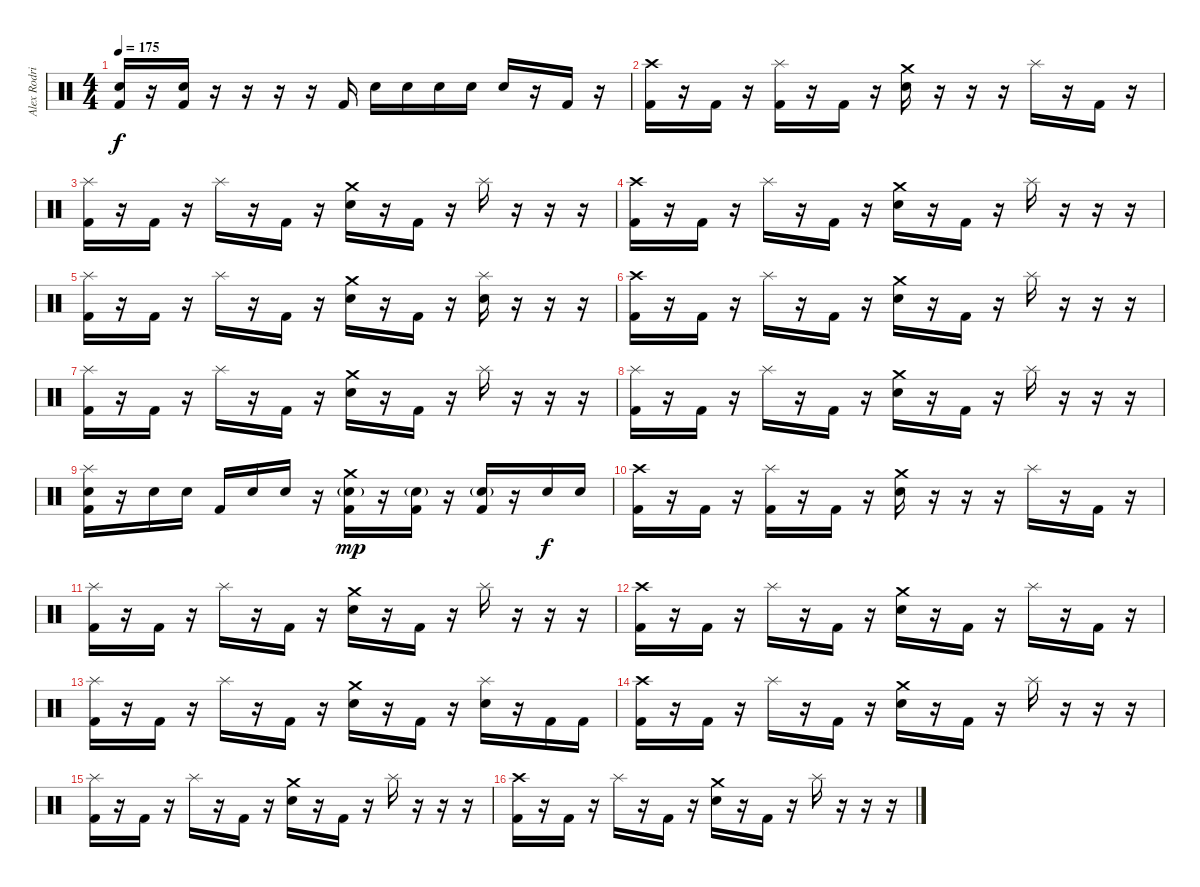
\track ("Alex Rodriguez" "Alex Rodri") {instrument percussion}
\staff {score}
\articulation defaults
\ts (4 4)
\tempo 175
\clef neutral
\ks c
("Electric Snare (hit)" "Kick (hit) 2").16{dy f} r.16 ("Electric Snare (hit)" "Kick (hit) 2").16 r.16 r.16 r.16 r.16 "Kick (hit) 2".16 "Electric Snare (hit)".16 "Electric Snare (hit)".16 "Electric Snare (hit)".16 "Electric Snare (hit)".16 "Electric Snare (hit)".16 r.16 "Kick (hit) 2".16 r.16 |
("Crash high (hit)" "Kick (hit) 2").16 r.16 "Kick (hit) 2".16 r.16 ("Splash (hit)" "Kick (hit) 2").16 r.16 "Kick (hit) 2".16 r.16 ("Crash medium (hit)" "Electric Snare (hit)").16 r.16 r.16 r.16 "Splash (hit)".16 r.16 "Kick (hit) 2".16 r.16 |
("Splash (hit)" "Kick (hit) 2").16 r.16 "Kick (hit) 2".16 r.16 "Splash (hit)".16 r.16 "Kick (hit) 2".16 r.16 ("Crash medium (hit)" "Electric Snare (hit)").16 r.16 "Kick (hit) 2".16 r.16 "Splash (hit)".16 r.16 r.16 r.16 |
("Crash high (hit)" "Kick (hit) 2").16 r.16 "Kick (hit) 2".16 r.16 "Splash (hit)".16 r.16 "Kick (hit) 2".16 r.16 ("Crash medium (hit)" "Electric Snare (hit)").16 r.16 "Kick (hit) 2".16 r.16 "Splash (hit)".16 r.16 r.16 r.16 |
("Splash (hit)" "Kick (hit) 2").16 r.16 "Kick (hit) 2".16 r.16 "Splash (hit)".16 r.16 "Kick (hit) 2".16 r.16 ("Crash medium (hit)" "Electric Snare (hit)").16 r.16 "Kick (hit) 2".16 r.16 ("Splash (hit)" "Electric Snare (hit)").16 r.16 r.16 r.16 |
("Crash high (hit)" "Kick (hit) 2").16 r.16 "Kick (hit) 2".16 r.16 "Splash (hit)".16 r.16 "Kick (hit) 2".16 r.16 ("Crash medium (hit)" "Electric Snare (hit)").16 r.16 "Kick (hit) 2".16 r.16 "Splash (hit)".16 r.16 r.16 r.16 |
("Splash (hit)" "Kick (hit) 2").16 r.16 "Kick (hit) 2".16 r.16 "Splash (hit)".16 r.16 "Kick (hit) 2".16 r.16 ("Crash medium (hit)" "Electric Snare (hit)").16 r.16 "Kick (hit) 2".16 r.16 "Splash (hit)".16 r.16 r.16 r.16 |
("Splash (hit)" "Kick (hit) 2").16 r.16 "Kick (hit) 2".16 r.16 "Splash (hit)".16 r.16 "Kick (hit) 2".16 r.16 ("Crash medium (hit)" "Electric Snare (hit)").16 r.16 "Kick (hit) 2".16 r.16 "Splash (hit)".16 r.16 r.16 r.16 |
("Splash (hit)" "Electric Snare (hit)" "Kick (hit) 2").16 r.16 "Electric Snare (hit)".16 "Electric Snare (hit)".16 "Kick (hit) 2".16 "Electric Snare (hit)".16 "Electric Snare (hit)".16 r.16 ("Crash medium (hit)" "Electric Snare (hit)"{g} "Kick (hit) 2").16{dy mp} r.16 ("Electric Snare (hit)"{g} "Kick (hit) 2").16 r.16 ("Electric Snare (hit)"{g} "Kick (hit) 2").16 r.16 "Electric Snare (hit)".16{dy f} "Electric Snare (hit)".16 |
("Crash high (hit)" "Kick (hit) 2").16 r.16 "Kick (hit) 2".16 r.16 ("Splash (hit)" "Kick (hit) 2").16 r.16 "Kick (hit) 2".16 r.16 ("Crash medium (hit)" "Electric Snare (hit)").16 r.16 r.16 r.16 "Splash (hit)".16 r.16 "Kick (hit) 2".16 r.16 |
("Splash (hit)" "Kick (hit) 2").16 r.16 "Kick (hit) 2".16 r.16 "Splash (hit)".16 r.16 "Kick (hit) 2".16 r.16 ("Crash medium (hit)" "Electric Snare (hit)").16 r.16 "Kick (hit) 2".16 r.16 "Splash (hit)".16 r.16 r.16 r.16 |
("Crash high (hit)" "Kick (hit) 2").16 r.16 "Kick (hit) 2".16 r.16 "Splash (hit)".16 r.16 "Kick (hit) 2".16 r.16 ("Crash medium (hit)" "Electric Snare (hit)").16 r.16 "Kick (hit) 2".16 r.16 "Splash (hit)".16 r.16 "Kick (hit) 2".16 r.16 |
("Splash (hit)" "Kick (hit) 2").16 r.16 "Kick (hit) 2".16 r.16 "Splash (hit)".16 r.16 "Kick (hit) 2".16 r.16 ("Crash medium (hit)" "Electric Snare (hit)").16 r.16 "Kick (hit) 2".16 r.16 ("Splash (hit)" "Electric Snare (hit)").16 r.16 "Kick (hit) 2".16 "Kick (hit) 2".16 |
("Crash high (hit)" "Kick (hit) 2").16 r.16 "Kick (hit) 2".16 r.16 "Splash (hit)".16 r.16 "Kick (hit) 2".16 r.16 ("Crash medium (hit)" "Electric Snare (hit)").16 r.16 "Kick (hit) 2".16 r.16 "Splash (hit)".16 r.16 r.16 r.16 |
("Splash (hit)" "Kick (hit) 2").16 r.16 "Kick (hit) 2".16 r.16 "Splash (hit)".16 r.16 "Kick (hit) 2".16 r.16 ("Crash medium (hit)" "Electric Snare (hit)").16 r.16 "Kick (hit) 2".16 r.16 "Splash (hit)".16 r.16 r.16 r.16 |
("Crash high (hit)" "Kick (hit) 2").16 r.16 "Kick (hit) 2".16 r.16 "Splash (hit)".16 r.16 "Kick (hit) 2".16 r.16 ("Crash medium (hit)" "Electric Snare (hit)").16 r.16 "Kick (hit) 2".16 r.16 "Splash (hit)".16 r.16 r.16 r.16
